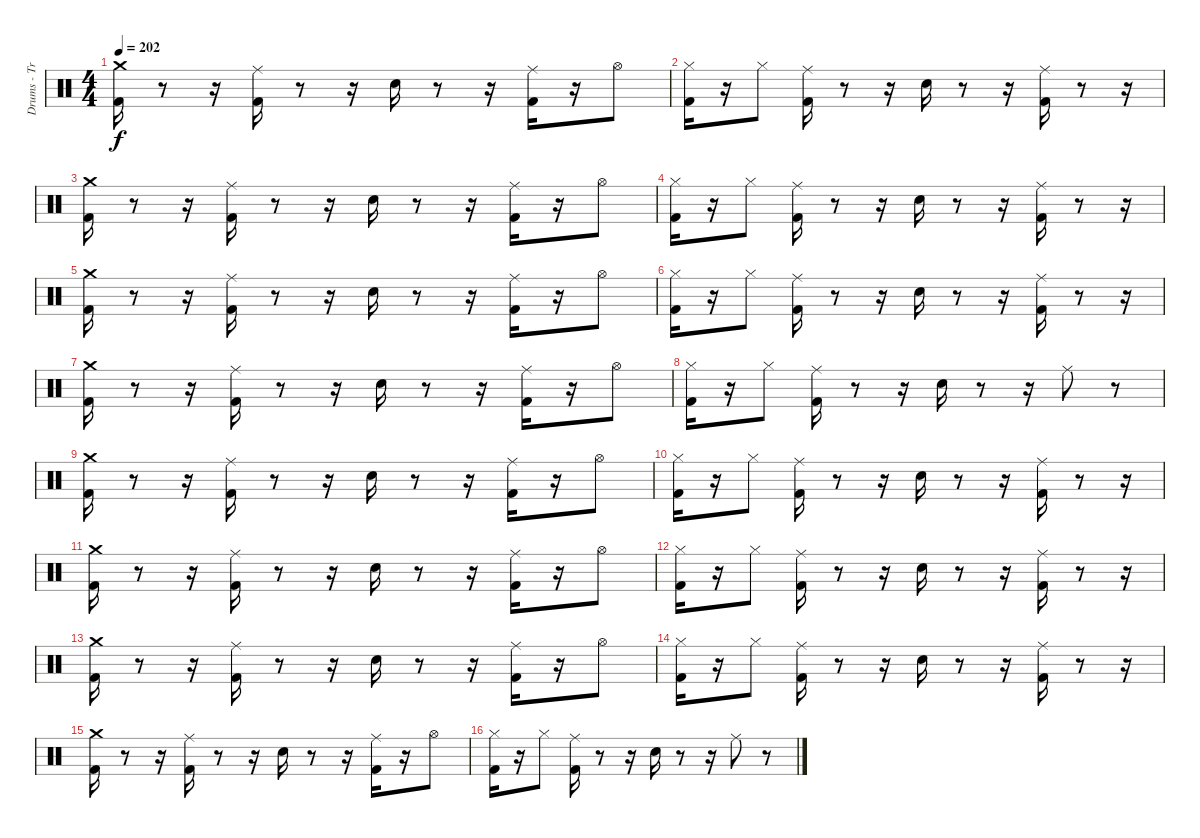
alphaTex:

\track ("Drums - Travis Barker" "Drums - Tr") {instrument percussion}
\staff {score}
\articulation defaults
\ts (4 4)
\tempo 202
\clef neutral
\ks c
("Crash medium (hit)" "Kick (hit) 2").16{dy f} r.8 r.16 ("Ride (middle)" "Kick (hit) 2").16 r.8 r.16 "Electric Snare (hit)".16 r.8 r.16 ("Ride (middle)" "Kick (hit) 2").16 r.16 "Hi-Hat (open)".8 |
("Kick (hit) 2" "Hi-Hat (closed)").16 r.16 "Hi-Hat (closed)".8 ("Ride (middle)" "Kick (hit) 2").16 r.8 r.16 "Electric Snare (hit)".16 r.8 r.16 ("Ride (middle)" "Kick (hit) 2").16 r.8 r.16 |
("Crash medium (hit)" "Kick (hit) 2").16 r.8 r.16 ("Ride (middle)" "Kick (hit) 2").16 r.8 r.16 "Electric Snare (hit)".16 r.8 r.16 ("Ride (middle)" "Kick (hit) 2").16 r.16 "Hi-Hat (open)".8 |
("Kick (hit) 2" "Hi-Hat (closed)").16 r.16 "Hi-Hat (closed)".8 ("Ride (middle)" "Kick (hit) 2").16 r.8 r.16 "Electric Snare (hit)".16 r.8 r.16 ("Ride (middle)" "Kick (hit) 2").16 r.8 r.16 |
("Crash medium (hit)" "Kick (hit) 2").16 r.8 r.16 ("Ride (middle)" "Kick (hit) 2").16 r.8 r.16 "Electric Snare (hit)".16 r.8 r.16 ("Ride (middle)" "Kick (hit) 2").16 r.16 "Hi-Hat (open)".8 |
("Kick (hit) 2" "Hi-Hat (closed)").16 r.16 "Hi-Hat (closed)".8 ("Ride (middle)" "Kick (hit) 2").16 r.8 r.16 "Electric Snare (hit)".16 r.8 r.16 ("Ride (middle)" "Kick (hit) 2").16 r.8 r.16 |
("Crash medium (hit)" "Kick (hit) 2").16 r.8 r.16 ("Ride (middle)" "Kick (hit) 2").16 r.8 r.16 "Electric Snare (hit)".16 r.8 r.16 ("Ride (middle)" "Kick (hit) 2").16 r.16 "Hi-Hat (open)".8 |
("Kick (hit) 2" "Hi-Hat (closed)").16 r.16 "Hi-Hat (closed)".8 ("Ride (middle)" "Kick (hit) 2").16 r.8 r.16 "Electric Snare (hit)".16 r.8 r.16 "Ride (middle)".8 r.8 |
("Crash medium (hit)" "Kick (hit) 2").16 r.8 r.16 ("Ride (middle)" "Kick (hit) 2").16 r.8 r.16 "Electric Snare (hit)".16 r.8 r.16 ("Ride (middle)" "Kick (hit) 2").16 r.16 "Hi-Hat (open)".8 |
("Kick (hit) 2" "Hi-Hat (closed)").16 r.16 "Hi-Hat (closed)".8 ("Ride (middle)" "Kick (hit) 2").16 r.8 r.16 "Electric Snare (hit)".16 r.8 r.16 ("Ride (middle)" "Kick (hit) 2").16 r.8 r.16 |
("Crash medium (hit)" "Kick (hit) 2").16 r.8 r.16 ("Ride (middle)" "Kick (hit) 2").16 r.8 r.16 "Electric Snare (hit)".16 r.8 r.16 ("Ride (middle)" "Kick (hit) 2").16 r.16 "Hi-Hat (open)".8 |
("Kick (hit) 2" "Hi-Hat (closed)").16 r.16 "Hi-Hat (closed)".8 ("Ride (middle)" "Kick (hit) 2").16 r.8 r.16 "Electric Snare (hit)".16 r.8 r.16 ("Ride (middle)" "Kick (hit) 2").16 r.8 r.16 |
("Crash medium (hit)" "Kick (hit) 2").16 r.8 r.16 ("Ride (middle)" "Kick (hit) 2").16 r.8 r.16 "Electric Snare (hit)".16 r.8 r.16 ("Ride (middle)" "Kick (hit) 2").16 r.16 "Hi-Hat (open)".8 |
("Kick (hit) 2" "Hi-Hat (closed)").16 r.16 "Hi-Hat (closed)".8 ("Ride (middle)" "Kick (hit) 2").16 r.8 r.16 "Electric Snare (hit)".16 r.8 r.16 ("Ride (middle)" "Kick (hit) 2").16 r.8 r.16 |
("Crash medium (hit)" "Kick (hit) 2").16 r.8 r.16 ("Ride (middle)" "Kick (hit) 2").16 r.8 r.16 "Electric Snare (hit)".16 r.8 r.16 ("Ride (middle)" "Kick (hit) 2").16 r.16 "Hi-Hat (open)".8 |
("Kick (hit) 2" "Hi-Hat (closed)").16 r.16 "Hi-Hat (closed)".8 ("Ride (middle)" "Kick (hit) 2").16 r.8 r.16 "Electric Snare (hit)".16 r.8 r.16 "Ride (middle)".8 r.8
